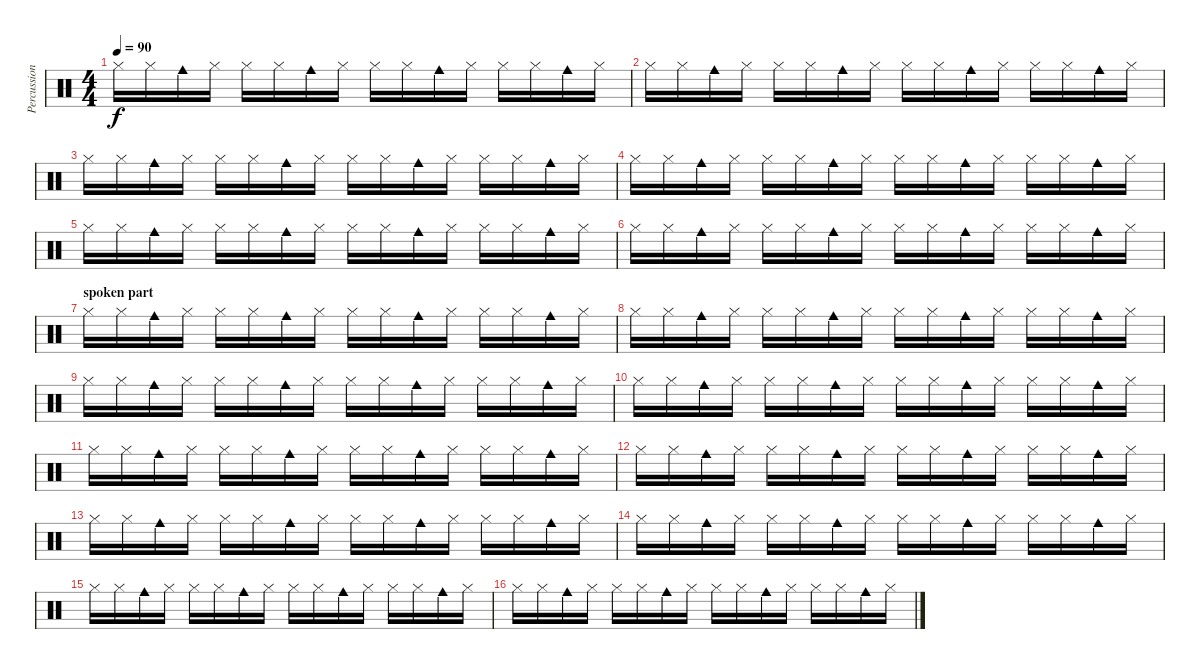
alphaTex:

\track ("Percussion" "Percussion") {instrument percussion}
\staff {score}
\articulation defaults
\ts (4 4)
\tempo 90
\clef neutral
\ks c "Hi-Hat (closed)".16{dy f} "Hi-Hat (closed)".16 "Cowbell medium (hit)".16 "Hi-Hat (closed)".16 "Hi-Hat (closed)".16 "Hi-Hat (closed)".16 "Cowbell medium (hit)".16 "Hi-Hat (closed)".16 "Hi-Hat (closed)".16 "Hi-Hat (closed)".16 "Cowbell medium (hit)".16 "Hi-Hat (closed)".16 "Hi-Hat (closed)".16 "Hi-Hat (closed)".16 "Cowbell medium (hit)".16 "Hi-Hat (closed)".16
|
"Hi-Hat (closed)".16 "Hi-Hat (closed)".16 "Cowbell medium (hit)".16 "Hi-Hat (closed)".16 "Hi-Hat (closed)".16 "Hi-Hat (closed)".16 "Cowbell medium (hit)".16 "Hi-Hat (closed)".16 "Hi-Hat (closed)".16 "Hi-Hat (closed)".16 "Cowbell medium (hit)".16 "Hi-Hat (closed)".16 "Hi-Hat (closed)".16 "Hi-Hat (closed)".16 "Cowbell medium (hit)".16 "Hi-Hat (closed)".16 |
"Hi-Hat (closed)".16 "Hi-Hat (closed)".16 "Cowbell medium (hit)".16 "Hi-Hat (closed)".16 "Hi-Hat (closed)".16 "Hi-Hat (closed)".16 "Cowbell medium (hit)".16 "Hi-Hat (closed)".16 "Hi-Hat (closed)".16 "Hi-Hat (closed)".16 "Cowbell medium (hit)".16 "Hi-Hat (closed)".16 "Hi-Hat (closed)".16 "Hi-Hat (closed)".16 "Cowbell medium (hit)".16 "Hi-Hat (closed)".16 |
"Hi-Hat (closed)".16 "Hi-Hat (closed)".16 "Cowbell medium (hit)".16 "Hi-Hat (closed)".16 "Hi-Hat (closed)".16 "Hi-Hat (closed)".16 "Cowbell medium (hit)".16 "Hi-Hat (closed)".16 "Hi-Hat (closed)".16 "Hi-Hat (closed)".16 "Cowbell medium (hit)".16 "Hi-Hat (closed)".16 "Hi-Hat (closed)".16 "Hi-Hat (closed)".16 "Cowbell medium (hit)".16 "Hi-Hat (closed)".16 |
"Hi-Hat (closed)".16 "Hi-Hat (closed)".16 "Cowbell medium (hit)".16 "Hi-Hat (closed)".16 "Hi-Hat (closed)".16 "Hi-Hat (closed)".16 "Cowbell medium (hit)".16 "Hi-Hat (closed)".16 "Hi-Hat (closed)".16 "Hi-Hat (closed)".16 "Cowbell medium (hit)".16 "Hi-Hat (closed)".16 "Hi-Hat (closed)".16 "Hi-Hat (closed)".16 "Cowbell medium (hit)".16 "Hi-Hat (closed)".16 |
"Hi-Hat (closed)".16 "Hi-Hat (closed)".16 "Cowbell medium (hit)".16 "Hi-Hat (closed)".16 "Hi-Hat (closed)".16 "Hi-Hat (closed)".16 "Cowbell medium (hit)".16 "Hi-Hat (closed)".16 "Hi-Hat (closed)".16 "Hi-Hat (closed)".16 "Cowbell medium (hit)".16 "Hi-Hat (closed)".16 "Hi-Hat (closed)".16 "Hi-Hat (closed)".16 "Cowbell medium (hit)".16 "Hi-Hat (closed)".16 |
\section ("" "spoken part")
"Hi-Hat (closed)".16 "Hi-Hat (closed)".16 "Cowbell medium (hit)".16 "Hi-Hat (closed)".16 "Hi-Hat (closed)".16 "Hi-Hat (closed)".16 "Cowbell medium (hit)".16 "Hi-Hat (closed)".16 "Hi-Hat (closed)".16 "Hi-Hat (closed)".16 "Cowbell medium (hit)".16 "Hi-Hat (closed)".16 "Hi-Hat (closed)".16 "Hi-Hat (closed)".16 "Cowbell medium (hit)".16 "Hi-Hat (closed)".16 |
"Hi-Hat (closed)".16 "Hi-Hat (closed)".16 "Cowbell medium (hit)".16 "Hi-Hat (closed)".16 "Hi-Hat (closed)".16 "Hi-Hat (closed)".16 "Cowbell medium (hit)".16 "Hi-Hat (closed)".16 "Hi-Hat (closed)".16 "Hi-Hat (closed)".16 "Cowbell medium (hit)".16 "Hi-Hat (closed)".16 "Hi-Hat (closed)".16 "Hi-Hat (closed)".16 "Cowbell medium (hit)".16 "Hi-Hat (closed)".16 |
"Hi-Hat (closed)".16 "Hi-Hat (closed)".16 "Cowbell medium (hit)".16 "Hi-Hat (closed)".16 "Hi-Hat (closed)".16 "Hi-Hat (closed)".16 "Cowbell medium (hit)".16 "Hi-Hat (closed)".16 "Hi-Hat (closed)".16 "Hi-Hat (closed)".16 "Cowbell medium (hit)".16 "Hi-Hat (closed)".16 "Hi-Hat (closed)".16 "Hi-Hat (closed)".16 "Cowbell medium (hit)".16 "Hi-Hat (closed)".16 |
"Hi-Hat (closed)".16 "Hi-Hat (closed)".16 "Cowbell medium (hit)".16 "Hi-Hat (closed)".16 "Hi-Hat (closed)".16 "Hi-Hat (closed)".16 "Cowbell medium (hit)".16 "Hi-Hat (closed)".16 "Hi-Hat (closed)".16 "Hi-Hat (closed)".16 "Cowbell medium (hit)".16 "Hi-Hat (closed)".16 "Hi-Hat (closed)".16 "Hi-Hat (closed)".16 "Cowbell medium (hit)".16 "Hi-Hat (closed)".16 |
"Hi-Hat (closed)".16 "Hi-Hat (closed)".16 "Cowbell medium (hit)".16 "Hi-Hat (closed)".16 "Hi-Hat (closed)".16 "Hi-Hat (closed)".16 "Cowbell medium (hit)".16 "Hi-Hat (closed)".16 "Hi-Hat (closed)".16 "Hi-Hat (closed)".16 "Cowbell medium (hit)".16 "Hi-Hat (closed)".16 "Hi-Hat (closed)".16 "Hi-Hat (closed)".16 "Cowbell medium (hit)".16 "Hi-Hat (closed)".16 |
"Hi-Hat (closed)".16 "Hi-Hat (closed)".16 "Cowbell medium (hit)".16 "Hi-Hat (closed)".16 "Hi-Hat (closed)".16 "Hi-Hat (closed)".16 "Cowbell medium (hit)".16 "Hi-Hat (closed)".16 "Hi-Hat (closed)".16 "Hi-Hat (closed)".16 "Cowbell medium (hit)".16 "Hi-Hat (closed)".16 "Hi-Hat (closed)".16 "Hi-Hat (closed)".16 "Cowbell medium (hit)".16 "Hi-Hat (closed)".16 |
"Hi-Hat (closed)".16 "Hi-Hat (closed)".16 "Cowbell medium (hit)".16 "Hi-Hat (closed)".16 "Hi-Hat (closed)".16 "Hi-Hat (closed)".16 "Cowbell medium (hit)".16 "Hi-Hat (closed)".16 "Hi-Hat (closed)".16 "Hi-Hat (closed)".16 "Cowbell medium (hit)".16 "Hi-Hat (closed)".16 "Hi-Hat (closed)".16 "Hi-Hat (closed)".16 "Cowbell medium (hit)".16 "Hi-Hat (closed)".16 |
"Hi-Hat (closed)".16 "Hi-Hat (closed)".16 "Cowbell medium (hit)".16 "Hi-Hat (closed)".16 "Hi-Hat (closed)".16 "Hi-Hat (closed)".16 "Cowbell medium (hit)".16 "Hi-Hat (closed)".16 "Hi-Hat (closed)".16 "Hi-Hat (closed)".16 "Cowbell medium (hit)".16 "Hi-Hat (closed)".16 "Hi-Hat (closed)".16 "Hi-Hat (closed)".16 "Cowbell medium (hit)".16 "Hi-Hat (closed)".16 |
"Hi-Hat (closed)".16 "Hi-Hat (closed)".16 "Cowbell medium (hit)".16 "Hi-Hat (closed)".16 "Hi-Hat (closed)".16 "Hi-Hat (closed)".16 "Cowbell medium (hit)".16 "Hi-Hat (closed)".16 "Hi-Hat (closed)".16 "Hi-Hat (closed)".16 "Cowbell medium (hit)".16 "Hi-Hat (closed)".16 "Hi-Hat (closed)".16 "Hi-Hat (closed)".16 "Cowbell medium (hit)".16 "Hi-Hat (closed)".16 |
"Hi-Hat (closed)".16 "Hi-Hat (closed)".16 "Cowbell medium (hit)".16 "Hi-Hat (closed)".16 "Hi-Hat (closed)".16 "Hi-Hat (closed)".16 "Cowbell medium (hit)".16 "Hi-Hat (closed)".16 "Hi-Hat (closed)".16 "Hi-Hat (closed)".16 "Cowbell medium (hit)".16 "Hi-Hat (closed)".16 "Hi-Hat (closed)".16 "Hi-Hat (closed)".16 "Cowbell medium (hit)".16 "Hi-Hat (closed)".16
